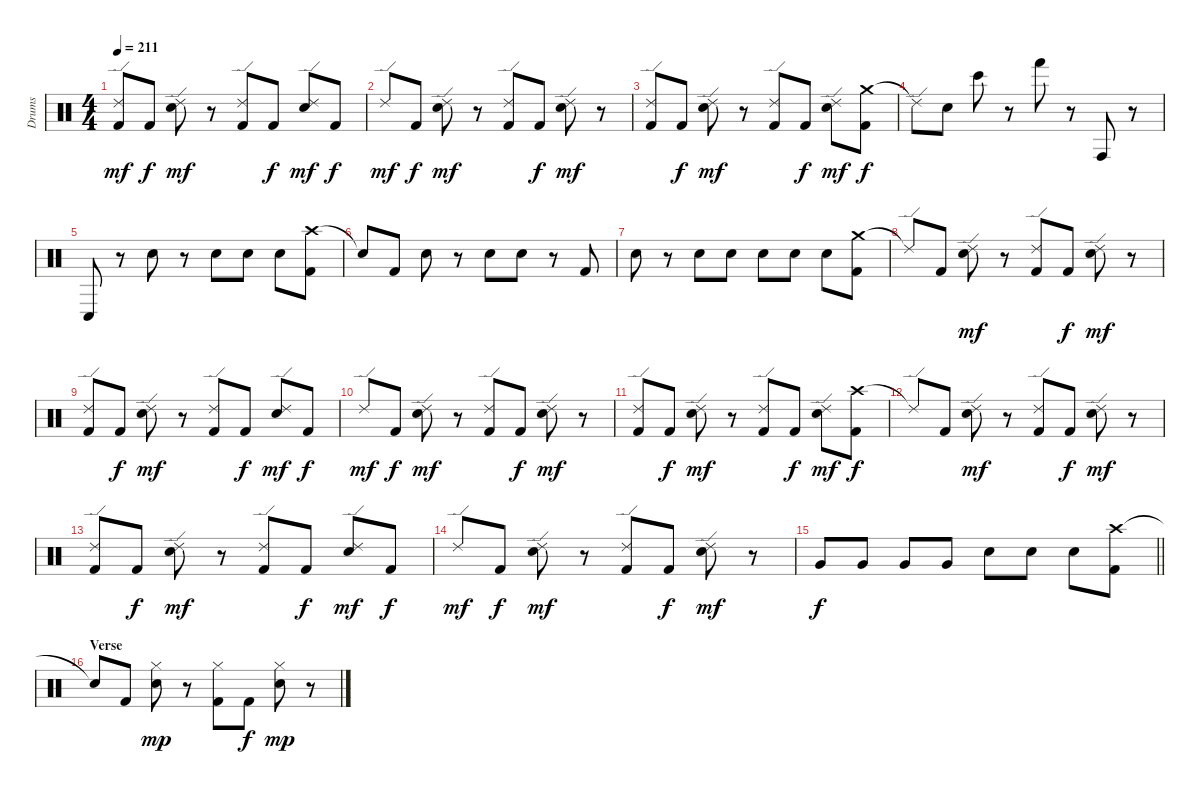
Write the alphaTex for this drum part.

\track ("Drums" "Drums") {instrument percussion}
\staff {score}
\articulation defaults
\ts (4 4)
\tempo 211
\clef neutral
\ks c
("Ride (edge) 2" "Kick (hit) 2").8{dy mf} "Kick (hit) 2".8{dy f} ("Ride (edge) 2" "Snare (hit) 2").8{dy mf} r.8 ("Ride (edge) 2" "Kick (hit) 2").8 "Kick (hit) 2".8{dy f} ("Ride (edge) 2" "Snare (hit) 2").8{dy mf} "Kick (hit) 2".8{dy f} |
"Ride (edge) 2".8{dy mf} "Kick (hit) 2".8{dy f} ("Ride (edge) 2" "Snare (hit) 2").8{dy mf} r.8 ("Ride (edge) 2" "Kick (hit) 2").8 "Kick (hit) 2".8{dy f} ("Ride (edge) 2" "Snare (hit) 2").8{dy mf} r.8 |
("Ride (edge) 2" "Kick (hit) 2").8 "Kick (hit) 2".8{dy f} ("Ride (edge) 2" "Snare (hit) 2").8{dy mf} r.8 ("Ride (edge) 2" "Kick (hit) 2").8 "Kick (hit) 2".8{dy f} ("Ride (edge) 2" "Snare (hit) 2").8{dy mf} ("Crash medium (hit)" "Kick (hit) 2").8{dy f} |
"Ride (edge) 2"{t}.8 "Snare (hit) 2".8 "Bongo High (hit)".8 r.8 "Hand (hit)".8 r.8 "Conga high (hit)".8 r.8 |
"Conga low (hit)".8 r.8 "Snare (hit) 2".8 r.8 "Snare (hit) 2".8 "Snare (hit) 2".8 "Snare (hit) 2".8 ("Crash high (hit)" "Kick (hit) 2").8 |
"Snare (hit)"{t}.8 "Kick (hit) 2".8 "Snare (hit) 2".8 r.8 "Snare (hit) 2".8 "Snare (hit) 2".8 r.8 "Kick (hit) 2".8 |
"Snare (hit) 2".8 r.8 "Snare (hit) 2".8 "Snare (hit) 2".8 "Snare (hit) 2".8 "Snare (hit) 2".8 "Snare (hit) 2".8 ("Crash medium (hit)" "Kick (hit) 2").8 |
"Ride (edge) 2"{t}.8 "Kick (hit) 2".8 ("Ride (edge) 2" "Snare (hit) 2").8{dy mf} r.8 ("Ride (edge) 2" "Kick (hit) 2").8 "Kick (hit) 2".8{dy f} ("Ride (edge) 2" "Snare (hit) 2").8{dy mf} r.8 |
("Ride (edge) 2" "Kick (hit) 2").8 "Kick (hit) 2".8{dy f} ("Ride (edge) 2" "Snare (hit) 2").8{dy mf} r.8 ("Ride (edge) 2" "Kick (hit) 2").8 "Kick (hit) 2".8{dy f} ("Ride (edge) 2" "Snare (hit) 2").8{dy mf} "Kick (hit) 2".8{dy f} |
"Ride (edge) 2".8{dy mf} "Kick (hit) 2".8{dy f} ("Ride (edge) 2" "Snare (hit) 2").8{dy mf} r.8 ("Ride (edge) 2" "Kick (hit) 2").8 "Kick (hit) 2".8{dy f} ("Ride (edge) 2" "Snare (hit) 2").8{dy mf} r.8 |
("Ride (edge) 2" "Kick (hit) 2").8 "Kick (hit) 2".8{dy f} ("Ride (edge) 2" "Snare (hit) 2").8{dy mf} r.8 ("Ride (edge) 2" "Kick (hit) 2").8 "Kick (hit) 2".8{dy f} ("Ride (edge) 2" "Snare (hit) 2").8{dy mf} ("Crash high (hit)" "Kick (hit) 2").8{dy f} |
"Ride (edge) 2"{t}.8 "Kick (hit) 2".8 ("Ride (edge) 2" "Snare (hit) 2").8{dy mf} r.8 ("Ride (edge) 2" "Kick (hit) 2").8 "Kick (hit) 2".8{dy f} ("Ride (edge) 2" "Snare (hit) 2").8{dy mf} r.8 |
("Ride (edge) 2" "Kick (hit) 2").8 "Kick (hit) 2".8{dy f} ("Ride (edge) 2" "Snare (hit) 2").8{dy mf} r.8 ("Ride (edge) 2" "Kick (hit) 2").8 "Kick (hit) 2".8{dy f} ("Ride (edge) 2" "Snare (hit) 2").8{dy mf} "Kick (hit) 2".8{dy f} |
"Ride (edge) 2".8{dy mf} "Kick (hit) 2".8{dy f} ("Ride (edge) 2" "Snare (hit) 2").8{dy mf} r.8 ("Ride (edge) 2" "Kick (hit) 2").8 "Kick (hit) 2".8{dy f} ("Ride (edge) 2" "Snare (hit) 2").8{dy mf} r.8 |
\barLineRight lightlight "Very Low Tom (hit)".8{dy f} "Very Low Tom (hit)".8 "Very Low Tom (hit)".8 "Very Low Tom (hit)".8 "Snare (hit) 2".8 "Snare (hit) 2".8 "Snare (hit) 2".8
("Crash high (hit)" "Kick (hit) 2").8 |
\section ("" "Verse")
"Snare (hit)"{t}.8 "Kick (hit) 2".8 ("Hi-Hat (closed)" "Snare (hit) 2").8{dy mp} r.8 ("Hi-Hat (closed)" "Kick (hit) 2").8 "Kick (hit) 2".8{dy f} ("Hi-Hat (closed)" "Snare (hit) 2").8{dy mp} r.8
